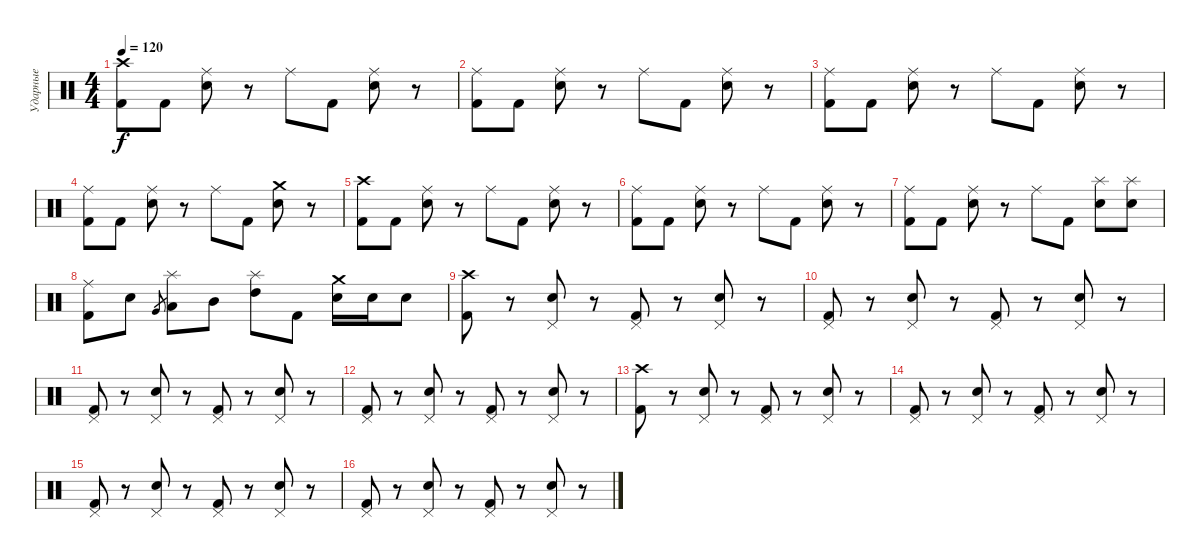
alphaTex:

\track ("Ударные" "Ударные") {instrument percussion}
\staff {score}
\articulation defaults
\ts (4 4)
\tempo 120
\clef neutral
\ks c
("Crash high (hit)" "Kick (hit) 2").8{dy f} "Kick (hit) 2".8 ("Ride (middle)" "Electric Snare (hit)").8 r.8 "Ride (middle)".8 "Kick (hit) 2".8 ("Ride (middle)" "Electric Snare (hit)").8 r.8 |
("Ride (middle)" "Kick (hit) 2").8 "Kick (hit) 2".8 ("Ride (middle)" "Electric Snare (hit)").8 r.8 "Ride (middle)".8 "Kick (hit) 2".8 ("Ride (middle)" "Electric Snare (hit)").8 r.8 |
("Ride (middle)" "Kick (hit) 2").8 "Kick (hit) 2".8 ("Ride (middle)" "Electric Snare (hit)").8 r.8 "Ride (middle)".8 "Kick (hit) 2".8 ("Ride (middle)" "Electric Snare (hit)").8 r.8 |
("Ride (middle)" "Kick (hit) 2").8 "Kick (hit) 2".8 ("Ride (middle)" "Electric Snare (hit)").8 r.8 "Ride (middle)".8 "Kick (hit) 2".8 ("Crash medium (hit)" "Electric Snare (hit)").8 r.8 |
("Crash high (hit)" "Kick (hit) 2").8 "Kick (hit) 2".8 ("Ride (middle)" "Electric Snare (hit)").8 r.8 "Ride (middle)".8 "Kick (hit) 2".8 ("Ride (middle)" "Electric Snare (hit)").8 r.8 |
("Ride (middle)" "Kick (hit) 2").8 "Kick (hit) 2".8 ("Ride (middle)" "Electric Snare (hit)").8 r.8 "Ride (middle)".8 "Kick (hit) 2".8 ("Ride (middle)" "Electric Snare (hit)").8 r.8 |
("Ride (middle)" "Kick (hit) 2").8 "Kick (hit) 2".8 ("Ride (middle)" "Electric Snare (hit)").8 r.8 "Ride (middle)".8 "Kick (hit) 2".8 ("Splash (hit)" "Electric Snare (hit)").8 ("Splash (hit)" "Electric Snare (hit)").8 |
("Ride (middle)" "Kick (hit) 2").8 "Electric Snare (hit)".8 "Very Low Tom (hit)".8{gr} ("Splash (hit)" "Low Tom (hit)").8 "Mid Tom (hit)".8 ("Splash (hit)" "High Tom (hit)").8 "Kick (hit) 2".8 ("Crash medium (hit)" "Electric Snare (hit)").16 "Electric Snare (hit)".16 "Electric Snare (hit)".8 |
("Crash high (hit)" "Kick (hit) 2").8 r.8 ("Pedal Hi-Hat (hit)" "Electric Snare (hit)").8 r.8 ("Pedal Hi-Hat (hit)" "Kick (hit) 2").8 r.8 ("Pedal Hi-Hat (hit)" "Electric Snare (hit)").8 r.8 |
("Pedal Hi-Hat (hit)" "Kick (hit) 2").8 r.8 ("Pedal Hi-Hat (hit)" "Electric Snare (hit)").8 r.8 ("Pedal Hi-Hat (hit)" "Kick (hit) 2").8 r.8 ("Pedal Hi-Hat (hit)" "Electric Snare (hit)").8 r.8 |
("Pedal Hi-Hat (hit)" "Kick (hit) 2").8 r.8 ("Pedal Hi-Hat (hit)" "Electric Snare (hit)").8 r.8 ("Pedal Hi-Hat (hit)" "Kick (hit) 2").8 r.8 ("Pedal Hi-Hat (hit)" "Electric Snare (hit)").8 r.8 |
("Pedal Hi-Hat (hit)" "Kick (hit) 2").8 r.8 ("Pedal Hi-Hat (hit)" "Electric Snare (hit)").8 r.8 ("Pedal Hi-Hat (hit)" "Kick (hit) 2").8 r.8 ("Pedal Hi-Hat (hit)" "Electric Snare (hit)").8 r.8 |
("Crash high (hit)" "Kick (hit) 2").8 r.8 ("Pedal Hi-Hat (hit)" "Electric Snare (hit)").8 r.8 ("Pedal Hi-Hat (hit)" "Kick (hit) 2").8 r.8 ("Pedal Hi-Hat (hit)" "Electric Snare (hit)").8 r.8 |
("Pedal Hi-Hat (hit)" "Kick (hit) 2").8 r.8 ("Pedal Hi-Hat (hit)" "Electric Snare (hit)").8 r.8 ("Pedal Hi-Hat (hit)" "Kick (hit) 2").8 r.8 ("Pedal Hi-Hat (hit)" "Electric Snare (hit)").8 r.8 |
("Pedal Hi-Hat (hit)" "Kick (hit) 2").8 r.8 ("Pedal Hi-Hat (hit)" "Electric Snare (hit)").8 r.8 ("Pedal Hi-Hat (hit)" "Kick (hit) 2").8 r.8 ("Pedal Hi-Hat (hit)" "Electric Snare (hit)").8 r.8 |
("Pedal Hi-Hat (hit)" "Kick (hit) 2").8 r.8 ("Pedal Hi-Hat (hit)" "Electric Snare (hit)").8 r.8 ("Pedal Hi-Hat (hit)" "Kick (hit) 2").8 r.8 ("Pedal Hi-Hat (hit)" "Electric Snare (hit)").8 r.8
